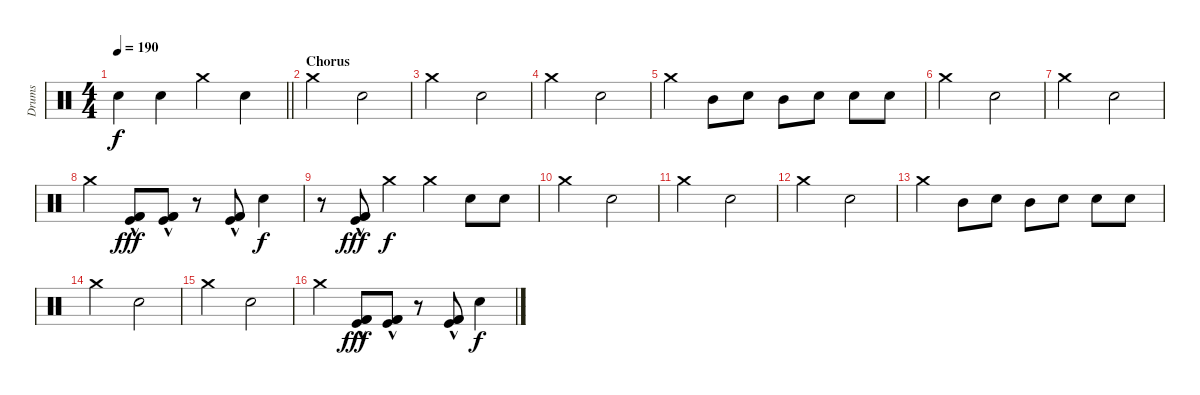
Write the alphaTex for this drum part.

\track ("Drums" "Drums") {instrument percussion}
\staff {score}
\articulation defaults
\ts (4 4)
\tempo 190
\clef neutral
\barLineRight lightlight
\ks c "Snare (hit)"{t}.4{dy f} "Snare (hit) 2".4 "Crash medium (hit)".4 "Snare (hit) 2".4
|
\section ("" "Chorus")
"Crash medium (hit)".2 "Snare (hit) 2".2 |
"Crash medium (hit)".2 "Snare (hit) 2".2 |
"Crash medium (hit)".2 "Snare (hit) 2".2 |
"Crash medium (hit)".4 "Mid Tom (hit)".8 "Snare (hit) 2".8 "Mid Tom (hit)".8 "Snare (hit) 2".8 "Snare (hit) 2".8 "Snare (hit) 2".8 |
"Crash medium (hit)".2 "Snare (hit) 2".2 |
"Crash medium (hit)".2 "Snare (hit) 2".2 |
"Crash medium (hit)".4 ("Kick (hit) 2"{hac} "Kick (hit)"{hac} "Kick (hit) 2"{hac}).8{dy fff} ("Kick (hit) 2"{hac} "Kick (hit)"{hac} "Kick (hit) 2"{hac}).8 r.8 ("Kick (hit) 2"{hac} "Kick (hit)"{hac} "Kick (hit) 2"{hac}).8 "Snare (hit) 2".4{dy f} |
r.8 ("Kick (hit) 2"{hac} "Kick (hit)"{hac} "Kick (hit) 2"{hac}).8{dy fff} "Crash medium (hit)".4{dy f} "Crash medium (hit)".4 "Snare (hit) 2".8 "Snare (hit) 2".8 |
"Crash medium (hit)".2 "Snare (hit) 2".2 |
"Crash medium (hit)".2 "Snare (hit) 2".2 |
"Crash medium (hit)".2 "Snare (hit) 2".2 |
"Crash medium (hit)".4 "Mid Tom (hit)".8 "Snare (hit) 2".8 "Mid Tom (hit)".8 "Snare (hit) 2".8 "Snare (hit) 2".8 "Snare (hit) 2".8 |
"Crash medium (hit)".2 "Snare (hit) 2".2 |
"Crash medium (hit)".2 "Snare (hit) 2".2 |
"Crash medium (hit)".4 ("Kick (hit) 2"{hac} "Kick (hit)"{hac} "Kick (hit) 2"{hac}).8{dy fff} ("Kick (hit) 2"{hac} "Kick (hit)"{hac} "Kick (hit) 2"{hac}).8 r.8 ("Kick (hit) 2"{hac} "Kick (hit)"{hac} "Kick (hit) 2"{hac}).8 "Snare (hit) 2".4{dy f}
